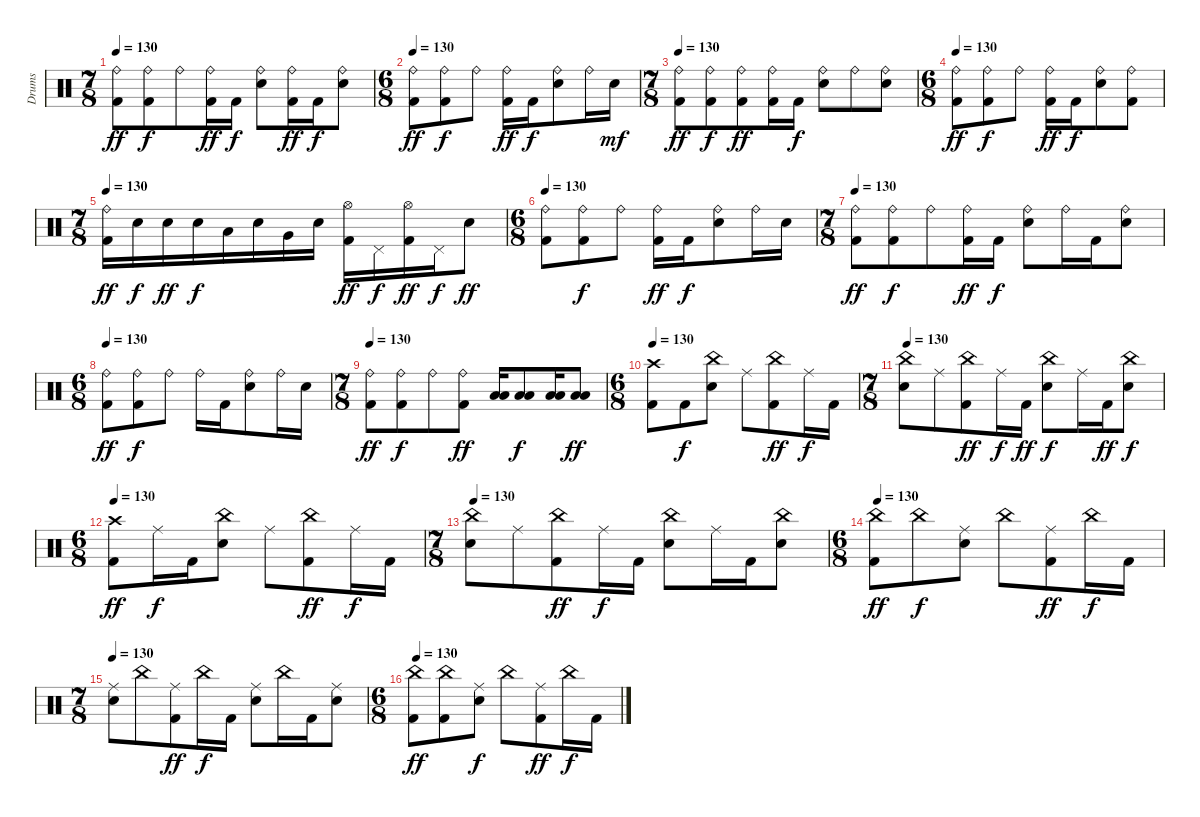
\track ("Drums" "Drums") {instrument percussion}
\staff {score}
\articulation defaults
\ts (7 8)
\tempo 130
\clef neutral
\ks c
("Ride (bell)" "Kick (hit) 2").8{dy ff} ("Ride (bell)" "Kick (hit) 2").8{dy f} "Ride (bell)".8 ("Ride (bell)" "Kick (hit) 2").16{dy ff} "Kick (hit) 2".16{dy f} ("Ride (bell)" "Electric Snare (hit)").8 ("Kick (hit) 2" "Ride (bell)").16{dy ff} "Kick (hit) 2".16{dy f} ("Ride (bell)" "Electric Snare (hit)").8 |
\ts (6 8)
\tempo 130
("Ride (bell)" "Kick (hit) 2").8{dy ff} ("Ride (bell)" "Kick (hit) 2").8{dy f} "Ride (bell)".8 ("Ride (bell)" "Kick (hit) 2").16{dy ff} "Kick (hit) 2".16{dy f} ("Ride (bell)" "Electric Snare (hit)").8 "Ride (bell)".16 "Electric Snare (hit)".16{dy mf} |
\ts (7 8)
\tempo 130
("Ride (bell)" "Kick (hit) 2").8{dy ff} ("Ride (bell)" "Kick (hit) 2").8{dy f} ("Kick (hit) 2" "Ride (bell)").8{dy ff} ("Ride (bell)" "Kick (hit) 2").16 "Kick (hit) 2".16{dy f} ("Ride (bell)" "Electric Snare (hit)").8 "Ride (bell)".8 ("Ride (bell)" "Electric Snare (hit)").8 |
\ts (6 8)
\tempo 130
("Ride (bell)" "Kick (hit) 2").8{dy ff} ("Ride (bell)" "Kick (hit) 2").8{dy f} "Ride (bell)".8 ("Ride (bell)" "Kick (hit) 2").16{dy ff} "Kick (hit) 2".16{dy f} ("Ride (bell)" "Electric Snare (hit)").8 ("Kick (hit) 2" "Ride (bell)").8 |
\ts (7 8)
\tempo 130
("Ride (bell)" "Kick (hit) 2").16{dy ff} "Electric Snare (hit)".16{dy f} "Electric Snare (hit)".16{dy ff} "Electric Snare (hit)".16{dy f} "Low Tom (hit)".16 "Electric Snare (hit)".16 "Very Low Tom (hit)".16 "Electric Snare (hit)".16 ("Kick (hit) 2" "Hi-Hat (open)").16{dy ff} "Pedal Hi-Hat (hit)".16{dy f} ("Hi-Hat (open)" "Kick (hit) 2").16{dy ff} "Pedal Hi-Hat (hit)".16{dy f} "Electric Snare (hit)".8{dy ff} |
\ts (6 8)
\tempo 130
("Ride (bell)" "Kick (hit) 2").8 ("Ride (bell)" "Kick (hit) 2").8{dy f} "Ride (bell)".8 ("Ride (bell)" "Kick (hit) 2").16{dy ff} "Kick (hit) 2".16{dy f} ("Ride (bell)" "Electric Snare (hit)").8 "Ride (bell)".16 "Electric Snare (hit)".16 |
\ts (7 8)
\tempo 130
("Ride (bell)" "Kick (hit) 2").8{dy ff} ("Ride (bell)" "Kick (hit) 2").8{dy f} "Ride (bell)".8 ("Ride (bell)" "Kick (hit) 2").16{dy ff} "Kick (hit) 2".16{dy f} ("Ride (bell)" "Electric Snare (hit)").8 "Ride (bell)".16 "Kick (hit) 2".16 ("Ride (bell)" "Electric Snare (hit)").8 |
\ts (6 8)
\tempo 130
("Ride (bell)" "Kick (hit) 2").8{dy ff} ("Ride (bell)" "Kick (hit) 2").8{dy f} "Ride (bell)".8 "Ride (bell)".16 "Kick (hit) 2".16 ("Ride (bell)" "Electric Snare (hit)").8 "Ride (bell)".16 "Electric Snare (hit)".16 |
\ts (7 8)
\tempo 130
("Ride (bell)" "Kick (hit) 2").8{dy ff} ("Ride (bell)" "Kick (hit) 2").8{dy f} "Ride (bell)".8 ("Ride (bell)" "Kick (hit) 2").8{dy ff} ("Low Tom (hit)" "Low Tom (hit)").16 ("Low Tom (hit)" "Low Tom (hit)").8{dy f} ("Low Tom (hit)" "Low Tom (hit)").16 ("Low Tom (hit)" "Low Tom (hit)").8{dy ff} |
\ts (6 8)
\tempo 130
("Crash high (hit)" "Kick (hit) 2").8 "Kick (hit) 2".8{dy f} ("China (hit)" "Electric Snare (hit)").8 "Ride (middle)".8 ("Kick (hit) 2" "China (hit)").8{dy ff} "Ride (middle)".16{dy f} "Kick (hit) 2".16 |
\ts (7 8)
\tempo 130
("China (hit)" "Electric Snare (hit)").8 "Ride (middle)".8 ("Kick (hit) 2" "China (hit)").8{dy ff} "Ride (middle)".16{dy f} "Kick (hit) 2".16{dy ff} ("China (hit)" "Electric Snare (hit)").8{dy f} "Ride (middle)".16 "Kick (hit) 2".16{dy ff} ("China (hit)" "Electric Snare (hit)").8{dy f} |
\ts (6 8)
\tempo 130
("Crash high (hit)" "Kick (hit) 2").8{dy ff} "Ride (middle)".16{dy f} "Kick (hit) 2".16 ("China (hit)" "Electric Snare (hit)").8 "Ride (middle)".8 ("Kick (hit) 2" "China (hit)").8{dy ff} "Ride (middle)".16{dy f} "Kick (hit) 2".16 |
\ts (7 8)
\tempo 130
("China (hit)" "Electric Snare (hit)").8 "Ride (middle)".8 ("Kick (hit) 2" "China (hit)").8{dy ff} "Ride (middle)".16{dy f} "Kick (hit) 2".16 ("China (hit)" "Electric Snare (hit)").8 "Ride (middle)".16 "Kick (hit) 2".16 ("China (hit)" "Electric Snare (hit)").8 |
\ts (6 8)
\tempo 130
("Kick (hit) 2" "China (hit)").8{dy ff} "China (hit)".8{dy f} ("Electric Snare (hit)" "Ride (middle)").8 "China (hit)".8 ("Kick (hit) 2" "Ride (middle)").8{dy ff} "China (hit)".16{dy f} "Kick (hit) 2".16 |
\ts (7 8)
\tempo 130
("Electric Snare (hit)" "Ride (middle)").8 "China (hit)".8 ("Kick (hit) 2" "Ride (middle)").8{dy ff} "China (hit)".16{dy f} "Kick (hit) 2".16 ("Electric Snare (hit)" "Ride (middle)").8 "China (hit)".16 "Kick (hit) 2".16 ("Electric Snare (hit)" "Ride (middle)").8 |
\ts (6 8)
\tempo 130
("China (hit)" "Kick (hit) 2").8{dy ff} ("China (hit)" "Kick (hit) 2").8 ("Electric Snare (hit)" "Ride (middle)").8{dy f} "China (hit)".8 ("Ride (middle)" "Kick (hit) 2").8{dy ff} "China (hit)".16{dy f} "Kick (hit) 2".16
